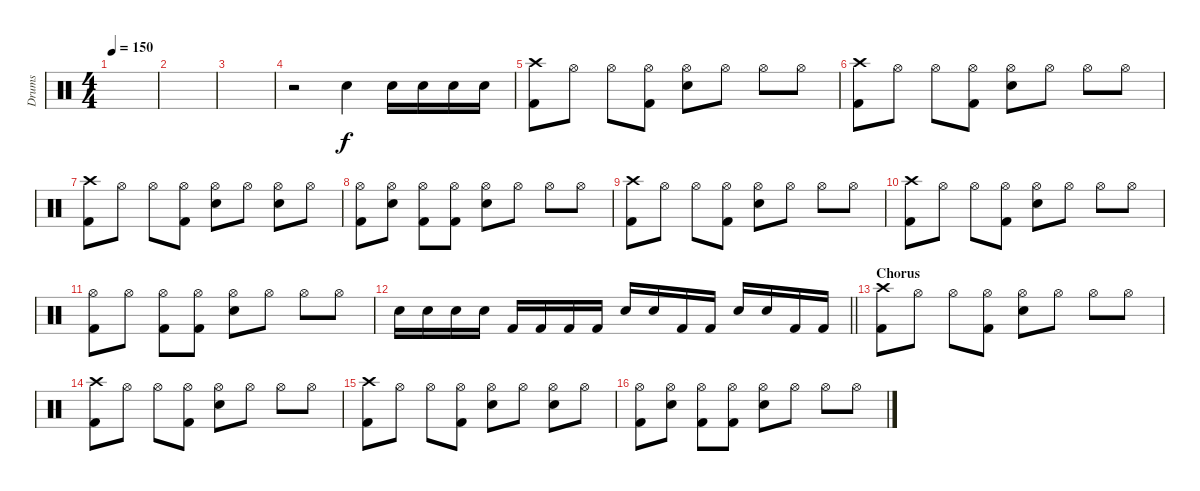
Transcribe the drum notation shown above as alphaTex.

\track ("Drums" "Drums") {instrument percussion}
\staff {score}
\articulation defaults
\ts (4 4)
\tempo 150
\clef neutral
\ks c
|
|
|
r.2 "Electric Snare (hit)".4 "Electric Snare (hit)".16 "Electric Snare (hit)".16 "Electric Snare (hit)".16 "Electric Snare (hit)".16 |
("Crash high (hit)" "Kick (hit) 2").8 "Hi-Hat (open)".8 "Hi-Hat (open)".8 ("Hi-Hat (open)" "Kick (hit) 2").8 ("Hi-Hat (open)" "Electric Snare (hit)").8 "Hi-Hat (open)".8 "Hi-Hat (open)".8 "Hi-Hat (open)".8 |
("Crash high (hit)" "Kick (hit) 2").8 "Hi-Hat (open)".8 "Hi-Hat (open)".8 ("Hi-Hat (open)" "Kick (hit) 2").8 ("Hi-Hat (open)" "Electric Snare (hit)").8 "Hi-Hat (open)".8 "Hi-Hat (open)".8 "Hi-Hat (open)".8 |
("Crash high (hit)" "Kick (hit) 2").8 "Hi-Hat (open)".8 "Hi-Hat (open)".8 ("Hi-Hat (open)" "Kick (hit) 2").8 ("Hi-Hat (open)" "Electric Snare (hit)").8 "Hi-Hat (open)".8 ("Hi-Hat (open)" "Electric Snare (hit)").8 "Hi-Hat (open)".8 |
("Hi-Hat (open)" "Kick (hit) 2").8 ("Hi-Hat (open)" "Electric Snare (hit)").8 ("Hi-Hat (open)" "Kick (hit) 2").8 ("Hi-Hat (open)" "Kick (hit) 2").8 ("Hi-Hat (open)" "Electric Snare (hit)").8 "Hi-Hat (open)".8 "Hi-Hat (open)".8 "Hi-Hat (open)".8 |
("Crash high (hit)" "Kick (hit) 2").8 "Hi-Hat (open)".8 "Hi-Hat (open)".8 ("Hi-Hat (open)" "Kick (hit) 2").8 ("Hi-Hat (open)" "Electric Snare (hit)").8 "Hi-Hat (open)".8 "Hi-Hat (open)".8 "Hi-Hat (open)".8 |
("Crash high (hit)" "Kick (hit) 2").8 "Hi-Hat (open)".8 "Hi-Hat (open)".8 ("Hi-Hat (open)" "Kick (hit) 2").8 ("Hi-Hat (open)" "Electric Snare (hit)").8 "Hi-Hat (open)".8 "Hi-Hat (open)".8 "Hi-Hat (open)".8 |
("Hi-Hat (open)" "Kick (hit) 2").8 "Hi-Hat (open)".8 ("Hi-Hat (open)" "Kick (hit) 2").8 ("Hi-Hat (open)" "Kick (hit) 2").8 ("Hi-Hat (open)" "Electric Snare (hit)").8 "Hi-Hat (open)".8 "Hi-Hat (open)".8 "Hi-Hat (open)".8 |
\barLineRight lightlight "Electric Snare (hit)".16 "Electric Snare (hit)".16 "Electric Snare (hit)".16 "Electric Snare (hit)".16 "Kick (hit) 2".16 "Kick (hit) 2".16 "Kick (hit) 2".16 "Kick (hit) 2".16 "Electric Snare (hit)".16 "Electric Snare (hit)".16 "Kick (hit) 2".16 "Kick (hit) 2".16 "Electric Snare (hit)".16 "Electric Snare (hit)".16 "Kick (hit) 2".16 "Kick (hit) 2".16
|
\section ("" "Chorus")
("Crash high (hit)" "Kick (hit) 2").8 "Hi-Hat (open)".8 "Hi-Hat (open)".8 ("Hi-Hat (open)" "Kick (hit) 2").8 ("Hi-Hat (open)" "Electric Snare (hit)").8 "Hi-Hat (open)".8 "Hi-Hat (open)".8 "Hi-Hat (open)".8 |
("Crash high (hit)" "Kick (hit) 2").8 "Hi-Hat (open)".8 "Hi-Hat (open)".8 ("Hi-Hat (open)" "Kick (hit) 2").8 ("Hi-Hat (open)" "Electric Snare (hit)").8 "Hi-Hat (open)".8 "Hi-Hat (open)".8 "Hi-Hat (open)".8 |
("Crash high (hit)" "Kick (hit) 2").8 "Hi-Hat (open)".8 "Hi-Hat (open)".8 ("Hi-Hat (open)" "Kick (hit) 2").8 ("Hi-Hat (open)" "Electric Snare (hit)").8 "Hi-Hat (open)".8 ("Hi-Hat (open)" "Electric Snare (hit)").8 "Hi-Hat (open)".8 |
("Hi-Hat (open)" "Kick (hit) 2").8 ("Hi-Hat (open)" "Electric Snare (hit)").8 ("Hi-Hat (open)" "Kick (hit) 2").8 ("Hi-Hat (open)" "Kick (hit) 2").8 ("Hi-Hat (open)" "Electric Snare (hit)").8 "Hi-Hat (open)".8 "Hi-Hat (open)".8 "Hi-Hat (open)".8
